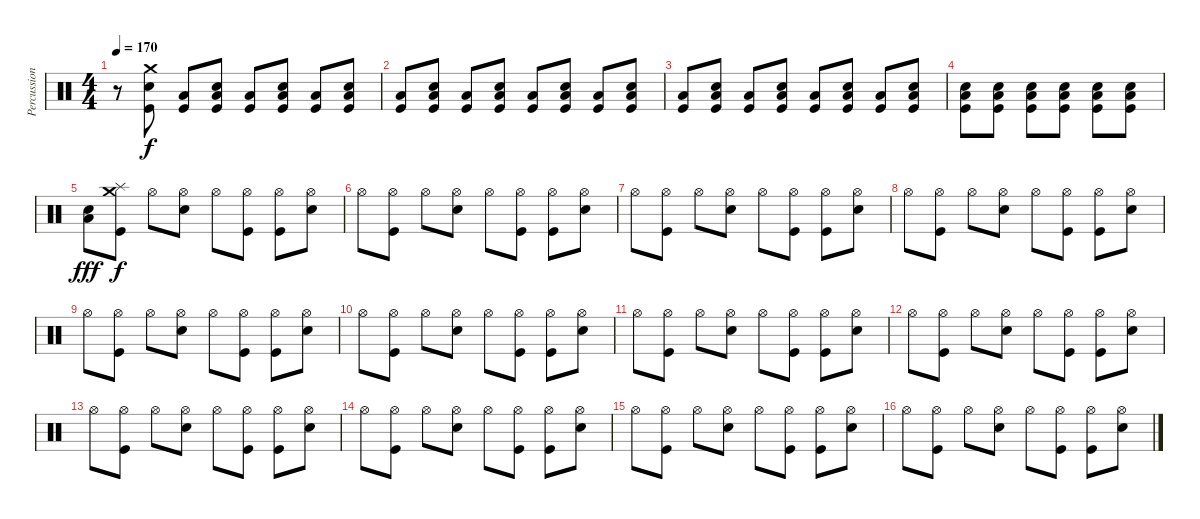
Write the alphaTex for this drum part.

\track ("Percussion" "Percussion") {instrument percussion}
\staff {score}
\articulation defaults
\ts (4 4)
\tempo 170
\clef neutral
\ks c
r.8{dy f} ("Crash medium (hit)" "Electric Snare (hit)" "Kick (hit)").8 ("Low Floor Tom (hit)" "Kick (hit)").8 ("Electric Snare (hit)" "Low Floor Tom (hit)" "Kick (hit)").8 ("Low Floor Tom (hit)" "Kick (hit)").8 ("Electric Snare (hit)" "Low Floor Tom (hit)" "Kick (hit)").8 ("Low Floor Tom (hit)" "Kick (hit)").8 ("Electric Snare (hit)" "Low Floor Tom (hit)" "Kick (hit)").8 |
("Low Floor Tom (hit)" "Kick (hit)").8 ("Electric Snare (hit)" "Low Floor Tom (hit)" "Kick (hit)").8 ("Low Floor Tom (hit)" "Kick (hit)").8 ("Electric Snare (hit)" "Low Floor Tom (hit)" "Kick (hit)").8 ("Low Floor Tom (hit)" "Kick (hit)").8 ("Electric Snare (hit)" "Low Floor Tom (hit)" "Kick (hit)").8 ("Low Floor Tom (hit)" "Kick (hit)").8 ("Electric Snare (hit)" "Low Floor Tom (hit)" "Kick (hit)").8 |
("Low Floor Tom (hit)" "Kick (hit)").8 ("Electric Snare (hit)" "Low Floor Tom (hit)" "Kick (hit)").8 ("Low Floor Tom (hit)" "Kick (hit)").8 ("Electric Snare (hit)" "Low Floor Tom (hit)" "Kick (hit)").8 ("Low Floor Tom (hit)" "Kick (hit)").8 ("Electric Snare (hit)" "Low Floor Tom (hit)" "Kick (hit)").8 ("Low Floor Tom (hit)" "Kick (hit)").8 ("Electric Snare (hit)" "Low Floor Tom (hit)" "Kick (hit)").8 |
("Electric Snare (hit)" "Low Floor Tom (hit)" "Kick (hit)").8 ("Electric Snare (hit)" "Low Floor Tom (hit)" "Kick (hit)").8 ("Electric Snare (hit)" "Kick (hit)" "Low Floor Tom (hit)").8 ("Electric Snare (hit)" "Kick (hit)" "Low Floor Tom (hit)").8 ("Electric Snare (hit)" "Kick (hit)" "Low Floor Tom (hit)").8 ("Electric Snare (hit)" "Kick (hit)" "Low Floor Tom (hit)").8 |
("Low Floor Tom (hit)" "Electric Snare (hit)").8{dy fff} ("Crash medium (hit)" "Splash (hit)" "Kick (hit)").8{dy f} "Hi-Hat (open)".8 ("Hi-Hat (open)" "Electric Snare (hit)").8 "Hi-Hat (open)".8 ("Hi-Hat (open)" "Kick (hit)").8 ("Hi-Hat (open)" "Kick (hit)").8 ("Hi-Hat (open)" "Electric Snare (hit)").8 |
"Hi-Hat (open)".8 ("Hi-Hat (open)" "Kick (hit)").8 "Hi-Hat (open)".8 ("Hi-Hat (open)" "Electric Snare (hit)").8 "Hi-Hat (open)".8 ("Hi-Hat (open)" "Kick (hit)").8 ("Hi-Hat (open)" "Kick (hit)").8 ("Hi-Hat (open)" "Electric Snare (hit)").8 |
"Hi-Hat (open)".8 ("Hi-Hat (open)" "Kick (hit)").8 "Hi-Hat (open)".8 ("Hi-Hat (open)" "Electric Snare (hit)").8 "Hi-Hat (open)".8 ("Hi-Hat (open)" "Kick (hit)").8 ("Hi-Hat (open)" "Kick (hit)").8 ("Hi-Hat (open)" "Electric Snare (hit)").8 |
"Hi-Hat (open)".8 ("Hi-Hat (open)" "Kick (hit)").8 "Hi-Hat (open)".8 ("Hi-Hat (open)" "Electric Snare (hit)").8 "Hi-Hat (open)".8 ("Hi-Hat (open)" "Kick (hit)").8 ("Hi-Hat (open)" "Kick (hit)").8 ("Hi-Hat (open)" "Electric Snare (hit)").8 |
"Hi-Hat (open)".8 ("Hi-Hat (open)" "Kick (hit)").8 "Hi-Hat (open)".8 ("Hi-Hat (open)" "Electric Snare (hit)").8 "Hi-Hat (open)".8 ("Hi-Hat (open)" "Kick (hit)").8 ("Hi-Hat (open)" "Kick (hit)").8 ("Hi-Hat (open)" "Electric Snare (hit)").8 |
"Hi-Hat (open)".8 ("Hi-Hat (open)" "Kick (hit)").8 "Hi-Hat (open)".8 ("Hi-Hat (open)" "Electric Snare (hit)").8 "Hi-Hat (open)".8 ("Hi-Hat (open)" "Kick (hit)").8 ("Hi-Hat (open)" "Kick (hit)").8 ("Hi-Hat (open)" "Electric Snare (hit)").8 |
"Hi-Hat (open)".8 ("Hi-Hat (open)" "Kick (hit)").8 "Hi-Hat (open)".8 ("Hi-Hat (open)" "Electric Snare (hit)").8 "Hi-Hat (open)".8 ("Hi-Hat (open)" "Kick (hit)").8 ("Hi-Hat (open)" "Kick (hit)").8 ("Hi-Hat (open)" "Electric Snare (hit)").8 |
"Hi-Hat (open)".8 ("Hi-Hat (open)" "Kick (hit)").8 "Hi-Hat (open)".8 ("Hi-Hat (open)" "Electric Snare (hit)").8 "Hi-Hat (open)".8 ("Hi-Hat (open)" "Kick (hit)").8 ("Hi-Hat (open)" "Kick (hit)").8 ("Hi-Hat (open)" "Electric Snare (hit)").8 |
"Hi-Hat (open)".8 ("Hi-Hat (open)" "Kick (hit)").8 "Hi-Hat (open)".8 ("Hi-Hat (open)" "Electric Snare (hit)").8 "Hi-Hat (open)".8 ("Hi-Hat (open)" "Kick (hit)").8 ("Hi-Hat (open)" "Kick (hit)").8 ("Hi-Hat (open)" "Electric Snare (hit)").8 |
"Hi-Hat (open)".8 ("Hi-Hat (open)" "Kick (hit)").8 "Hi-Hat (open)".8 ("Hi-Hat (open)" "Electric Snare (hit)").8 "Hi-Hat (open)".8 ("Hi-Hat (open)" "Kick (hit)").8 ("Hi-Hat (open)" "Kick (hit)").8 ("Hi-Hat (open)" "Electric Snare (hit)").8 |
"Hi-Hat (open)".8 ("Hi-Hat (open)" "Kick (hit)").8 "Hi-Hat (open)".8 ("Hi-Hat (open)" "Electric Snare (hit)").8 "Hi-Hat (open)".8 ("Hi-Hat (open)" "Kick (hit)").8 ("Hi-Hat (open)" "Kick (hit)").8 ("Hi-Hat (open)" "Electric Snare (hit)").8 |
"Hi-Hat (open)".8 ("Hi-Hat (open)" "Kick (hit)").8 "Hi-Hat (open)".8 ("Hi-Hat (open)" "Electric Snare (hit)").8 "Hi-Hat (open)".8 ("Hi-Hat (open)" "Kick (hit)").8 ("Hi-Hat (open)" "Kick (hit)").8 ("Hi-Hat (open)" "Electric Snare (hit)").8
